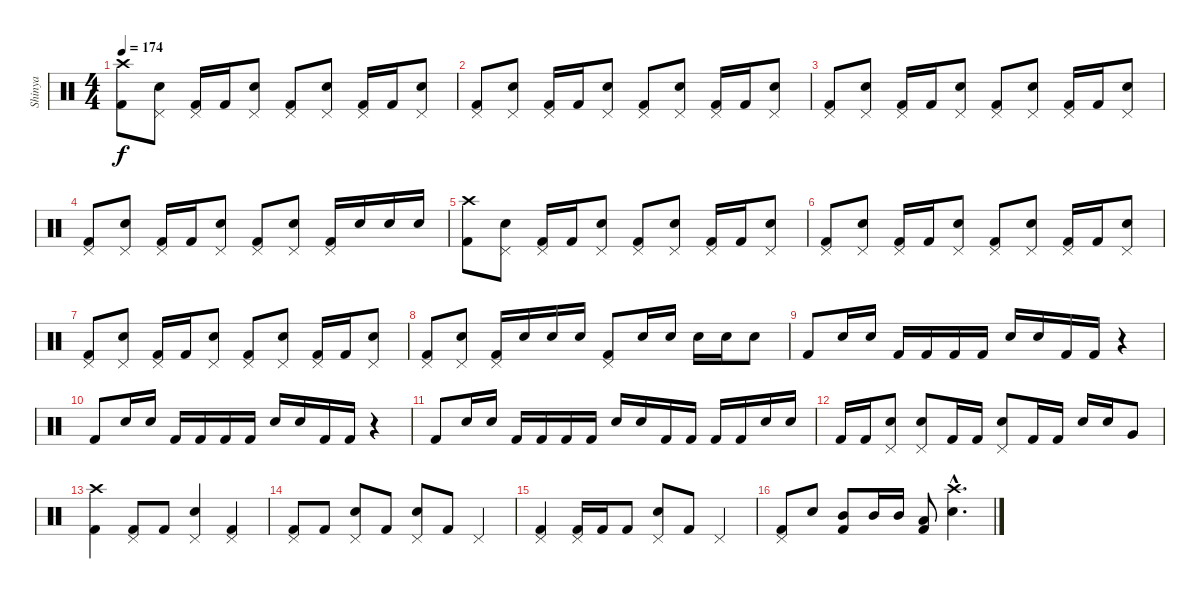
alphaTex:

\track ("Shinya" "Shinya") {instrument percussion}
\staff {score}
\articulation defaults
\ts (4 4)
\tempo 174
\clef neutral
\ks c
("Crash high (hit)" "Kick (hit) 2").8{dy f} ("Pedal Hi-Hat (hit)" "Electric Snare (hit)").8 ("Pedal Hi-Hat (hit)" "Kick (hit) 2").16 "Kick (hit) 2".16 ("Pedal Hi-Hat (hit)" "Electric Snare (hit)").8 ("Pedal Hi-Hat (hit)" "Kick (hit) 2").8 ("Pedal Hi-Hat (hit)" "Electric Snare (hit)").8 ("Pedal Hi-Hat (hit)" "Kick (hit) 2").16 "Kick (hit) 2".16 ("Pedal Hi-Hat (hit)" "Electric Snare (hit)").8 |
("Pedal Hi-Hat (hit)" "Kick (hit) 2").8 ("Pedal Hi-Hat (hit)" "Electric Snare (hit)").8 ("Pedal Hi-Hat (hit)" "Kick (hit) 2").16 "Kick (hit) 2".16 ("Pedal Hi-Hat (hit)" "Electric Snare (hit)").8 ("Pedal Hi-Hat (hit)" "Kick (hit) 2").8 ("Pedal Hi-Hat (hit)" "Electric Snare (hit)").8 ("Pedal Hi-Hat (hit)" "Kick (hit) 2").16 "Kick (hit) 2".16 ("Pedal Hi-Hat (hit)" "Electric Snare (hit)").8 |
("Pedal Hi-Hat (hit)" "Kick (hit) 2").8 ("Pedal Hi-Hat (hit)" "Electric Snare (hit)").8 ("Pedal Hi-Hat (hit)" "Kick (hit) 2").16 "Kick (hit) 2".16 ("Pedal Hi-Hat (hit)" "Electric Snare (hit)").8 ("Pedal Hi-Hat (hit)" "Kick (hit) 2").8 ("Pedal Hi-Hat (hit)" "Electric Snare (hit)").8 ("Pedal Hi-Hat (hit)" "Kick (hit) 2").16 "Kick (hit) 2".16 ("Pedal Hi-Hat (hit)" "Electric Snare (hit)").8 |
("Pedal Hi-Hat (hit)" "Kick (hit) 2").8 ("Pedal Hi-Hat (hit)" "Electric Snare (hit)").8 ("Pedal Hi-Hat (hit)" "Kick (hit) 2").16 "Kick (hit) 2".16 ("Pedal Hi-Hat (hit)" "Electric Snare (hit)").8 ("Pedal Hi-Hat (hit)" "Kick (hit) 2").8 ("Pedal Hi-Hat (hit)" "Electric Snare (hit)").8 ("Pedal Hi-Hat (hit)" "Kick (hit) 2").16 "Electric Snare (hit)".16 "Electric Snare (hit)".16 "Electric Snare (hit)".16 |
("Crash high (hit)" "Kick (hit) 2").8 ("Pedal Hi-Hat (hit)" "Electric Snare (hit)").8 ("Pedal Hi-Hat (hit)" "Kick (hit) 2").16 "Kick (hit) 2".16 ("Pedal Hi-Hat (hit)" "Electric Snare (hit)").8 ("Pedal Hi-Hat (hit)" "Kick (hit) 2").8 ("Pedal Hi-Hat (hit)" "Electric Snare (hit)").8 ("Pedal Hi-Hat (hit)" "Kick (hit) 2").16 "Kick (hit) 2".16 ("Pedal Hi-Hat (hit)" "Electric Snare (hit)").8 |
("Pedal Hi-Hat (hit)" "Kick (hit) 2").8 ("Pedal Hi-Hat (hit)" "Electric Snare (hit)").8 ("Pedal Hi-Hat (hit)" "Kick (hit) 2").16 "Kick (hit) 2".16 ("Pedal Hi-Hat (hit)" "Electric Snare (hit)").8 ("Pedal Hi-Hat (hit)" "Kick (hit) 2").8 ("Pedal Hi-Hat (hit)" "Electric Snare (hit)").8 ("Pedal Hi-Hat (hit)" "Kick (hit) 2").16 "Kick (hit) 2".16 ("Pedal Hi-Hat (hit)" "Electric Snare (hit)").8 |
("Pedal Hi-Hat (hit)" "Kick (hit) 2").8 ("Pedal Hi-Hat (hit)" "Electric Snare (hit)").8 ("Pedal Hi-Hat (hit)" "Kick (hit) 2").16 "Kick (hit) 2".16 ("Pedal Hi-Hat (hit)" "Electric Snare (hit)").8 ("Pedal Hi-Hat (hit)" "Kick (hit) 2").8 ("Pedal Hi-Hat (hit)" "Electric Snare (hit)").8 ("Pedal Hi-Hat (hit)" "Kick (hit) 2").16 "Kick (hit) 2".16 ("Pedal Hi-Hat (hit)" "Electric Snare (hit)").8 |
("Pedal Hi-Hat (hit)" "Kick (hit) 2").8 ("Pedal Hi-Hat (hit)" "Electric Snare (hit)").8 ("Pedal Hi-Hat (hit)" "Kick (hit) 2").16 "Electric Snare (hit)".16 "Electric Snare (hit)".16 "Electric Snare (hit)".16 ("Pedal Hi-Hat (hit)" "Kick (hit) 2").8 "Electric Snare (hit)".16 "Electric Snare (hit)".16 "Electric Snare (hit)".16 "Electric Snare (hit)".16 "Electric Snare (hit)".8 |
"Kick (hit) 2".8 "Electric Snare (hit)".16 "Electric Snare (hit)".16 "Kick (hit) 2".16 "Kick (hit) 2".16 "Kick (hit) 2".16 "Kick (hit) 2".16 "Electric Snare (hit)".16 "Electric Snare (hit)".16 "Kick (hit) 2".16 "Kick (hit) 2".16 r.4 |
"Kick (hit) 2".8 "Electric Snare (hit)".16 "Electric Snare (hit)".16 "Kick (hit) 2".16 "Kick (hit) 2".16 "Kick (hit) 2".16 "Kick (hit) 2".16 "Electric Snare (hit)".16 "Electric Snare (hit)".16 "Kick (hit) 2".16 "Kick (hit) 2".16 r.4 |
"Kick (hit) 2".8 "Electric Snare (hit)".16 "Electric Snare (hit)".16 "Kick (hit) 2".16 "Kick (hit) 2".16 "Kick (hit) 2".16 "Kick (hit) 2".16 "Electric Snare (hit)".16 "Electric Snare (hit)".16 "Kick (hit) 2".16 "Kick (hit) 2".16 "Kick (hit) 2".16 "Kick (hit) 2".16 "Electric Snare (hit)".16 "Electric Snare (hit)".16 |
"Kick (hit) 2".16 "Kick (hit) 2".16 ("Pedal Hi-Hat (hit)" "Electric Snare (hit)").8 ("Pedal Hi-Hat (hit)" "Electric Snare (hit)").8 "Kick (hit) 2".16 "Kick (hit) 2".16 ("Pedal Hi-Hat (hit)" "Electric Snare (hit)").8 "Kick (hit) 2".16 "Kick (hit) 2".16 "Electric Snare (hit)".16 "Electric Snare (hit)".16 "Very Low Tom (hit)".8 |
("Crash high (hit)" "Kick (hit) 2").4 ("Pedal Hi-Hat (hit)" "Kick (hit) 2").8 "Kick (hit) 2".8 ("Pedal Hi-Hat (hit)" "Electric Snare (hit)").4 ("Pedal Hi-Hat (hit)" "Kick (hit) 2").4 |
("Pedal Hi-Hat (hit)" "Kick (hit) 2").8 "Kick (hit) 2".8 ("Pedal Hi-Hat (hit)" "Electric Snare (hit)").8 "Kick (hit) 2".8 ("Pedal Hi-Hat (hit)" "Electric Snare (hit)").8 "Kick (hit) 2".8 "Pedal Hi-Hat (hit)".4 |
("Pedal Hi-Hat (hit)" "Kick (hit) 2").4 ("Pedal Hi-Hat (hit)" "Kick (hit) 2").16 "Kick (hit) 2".16 "Kick (hit) 2".8 ("Pedal Hi-Hat (hit)" "Electric Snare (hit)").8 "Kick (hit) 2".8 "Pedal Hi-Hat (hit)".4 |
("Pedal Hi-Hat (hit)" "Kick (hit) 2").8 "Electric Snare (hit)".8 ("Mid Tom (hit)" "Kick (hit) 2").8 "Mid Tom (hit)".16 "Mid Tom (hit)".16 ("Low Tom (hit)" "Kick (hit) 2").8 ("Crash high (hit)"{hac} "Electric Snare (hit)"{hac}).4{d}
